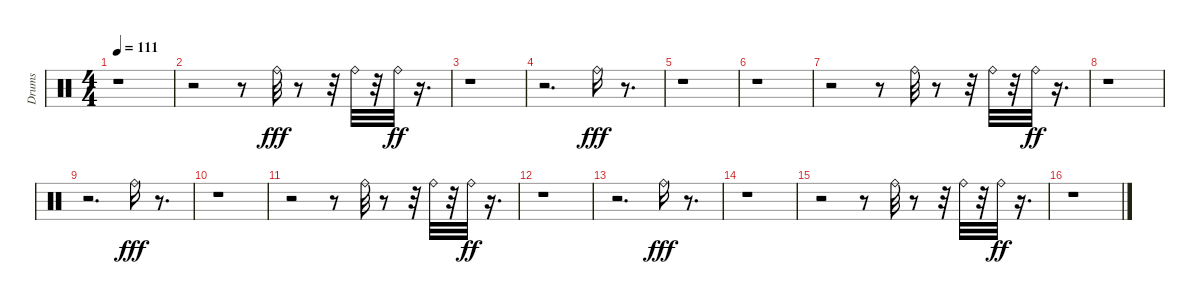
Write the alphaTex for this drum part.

\track ("Drums" "Drums") {instrument percussion}
\staff {score}
\articulation defaults
\ts (4 4)
\tempo 111
\clef neutral
\ks c
r.1{dy fff} |
r.2 r.8 "Ride (bell)".32 r.8 r.32 "Ride (bell)".32 r.32 "Ride (bell)".32{dy ff} r.16{d} |
r.1 |
r.2{d} "Ride (bell)".16{dy fff} r.8{d} |
r.1 |
r.1 |
r.2 r.8 "Ride (bell)".32 r.8 r.32 "Ride (bell)".32 r.32 "Ride (bell)".32{dy ff} r.16{d} |
r.1 |
r.2{d} "Ride (bell)".16{dy fff} r.8{d} |
r.1 |
r.2 r.8 "Ride (bell)".32 r.8 r.32 "Ride (bell)".32 r.32 "Ride (bell)".32{dy ff} r.16{d} |
r.1 |
r.2{d} "Ride (bell)".16{dy fff} r.8{d} |
r.1 |
r.2 r.8 "Ride (bell)".32 r.8 r.32 "Ride (bell)".32 r.32 "Ride (bell)".32{dy ff} r.16{d} |
r.1
